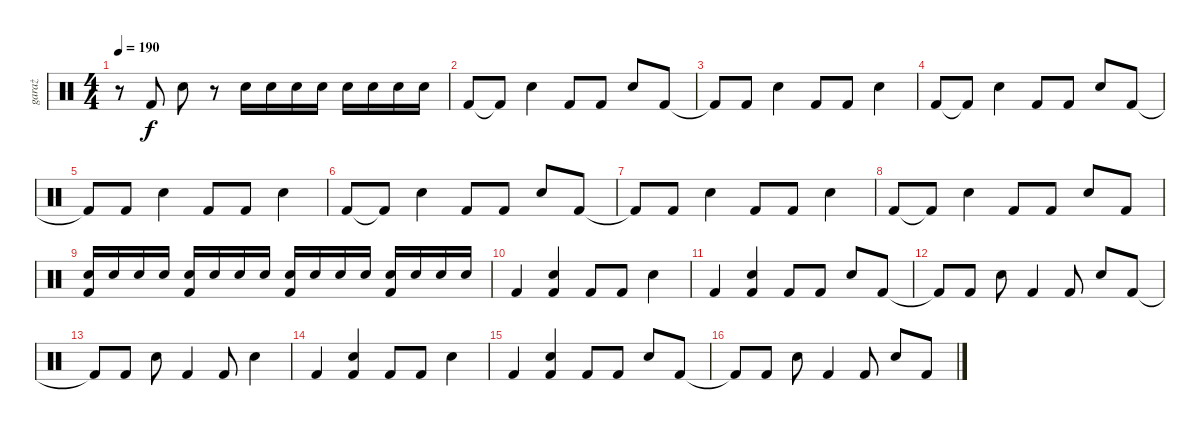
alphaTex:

\track ("garaż" "garaż") {instrument percussion}
\staff {score}
\articulation defaults
\ts (4 4)
\tempo 190
\clef neutral
\ks c
r.8{dy f} "Kick (hit) 2".8 "Snare (hit) 2".8 r.8 "Snare (hit) 2".16 "Snare (hit) 2".16 "Snare (hit) 2".16 "Snare (hit) 2".16 "Snare (hit) 2".16 "Snare (hit) 2".16 "Snare (hit) 2".16 "Snare (hit) 2".16 |
"Kick (hit) 2".8 "Kick (hit) 2"{t}.8 "Snare (hit) 2".4 "Kick (hit) 2".8 "Kick (hit) 2".8 "Snare (hit) 2".8 "Kick (hit) 2".8 |
"Kick (hit) 2"{t}.8 "Kick (hit) 2".8 "Snare (hit) 2".4 "Kick (hit) 2".8 "Kick (hit) 2".8 "Snare (hit) 2".4 |
"Kick (hit) 2".8 "Kick (hit) 2"{t}.8 "Snare (hit) 2".4 "Kick (hit) 2".8 "Kick (hit) 2".8 "Snare (hit) 2".8 "Kick (hit) 2".8 |
"Kick (hit) 2"{t}.8 "Kick (hit) 2".8 "Snare (hit) 2".4 "Kick (hit) 2".8 "Kick (hit) 2".8 "Snare (hit) 2".4 |
"Kick (hit) 2".8 "Kick (hit) 2"{t}.8 "Snare (hit) 2".4 "Kick (hit) 2".8 "Kick (hit) 2".8 "Snare (hit) 2".8 "Kick (hit) 2".8 |
"Kick (hit) 2"{t}.8 "Kick (hit) 2".8 "Snare (hit) 2".4 "Kick (hit) 2".8 "Kick (hit) 2".8 "Snare (hit) 2".4 |
"Kick (hit) 2".8 "Kick (hit) 2"{t}.8 "Snare (hit) 2".4 "Kick (hit) 2".8 "Kick (hit) 2".8 "Snare (hit) 2".8 "Kick (hit) 2".8 |
("Snare (hit) 2" "Kick (hit) 2").16 "Snare (hit) 2".16 "Snare (hit) 2".16 "Snare (hit) 2".16 ("Snare (hit) 2" "Kick (hit) 2").16 "Snare (hit) 2".16 "Snare (hit) 2".16 "Snare (hit) 2".16 ("Snare (hit) 2" "Kick (hit) 2").16 "Snare (hit) 2".16 "Snare (hit) 2".16 "Snare (hit) 2".16 ("Snare (hit) 2" "Kick (hit) 2").16 "Snare (hit) 2".16 "Snare (hit) 2".16 "Snare (hit) 2".16 |
"Kick (hit) 2".4 ("Snare (hit) 2" "Kick (hit) 2").4 "Kick (hit) 2".8 "Kick (hit) 2".8 "Snare (hit) 2".4 |
"Kick (hit) 2".4 ("Snare (hit) 2" "Kick (hit) 2").4 "Kick (hit) 2".8 "Kick (hit) 2".8 "Snare (hit) 2".8 "Kick (hit) 2".8 |
"Kick (hit) 2"{t}.8 "Kick (hit) 2".8 "Snare (hit) 2".8 "Kick (hit) 2".4 "Kick (hit) 2".8 "Snare (hit) 2".8 "Kick (hit) 2".8 |
"Kick (hit) 2"{t}.8 "Kick (hit) 2".8 "Snare (hit) 2".8 "Kick (hit) 2".4 "Kick (hit) 2".8 "Snare (hit) 2".4 |
"Kick (hit) 2".4 ("Snare (hit) 2" "Kick (hit) 2").4 "Kick (hit) 2".8 "Kick (hit) 2".8 "Snare (hit) 2".4 |
"Kick (hit) 2".4 ("Snare (hit) 2" "Kick (hit) 2").4 "Kick (hit) 2".8 "Kick (hit) 2".8 "Snare (hit) 2".8 "Kick (hit) 2".8 |
"Kick (hit) 2"{t}.8 "Kick (hit) 2".8 "Snare (hit) 2".8 "Kick (hit) 2".4 "Kick (hit) 2".8 "Snare (hit) 2".8 "Kick (hit) 2".8
